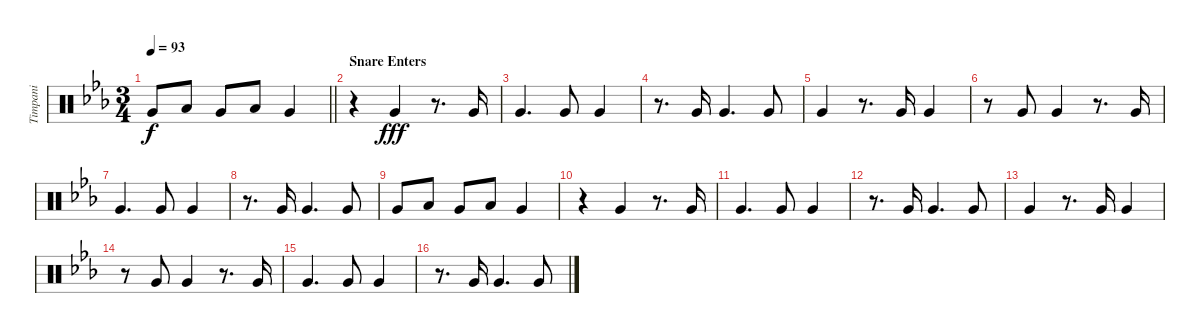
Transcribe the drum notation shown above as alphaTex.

\track ("Timpani" "Timpani") {instrument percussion}
\staff {score}
\articulation defaults
\ts (3 4)
\tempo 93
\clef neutral
\barLineRight lightlight
\ks cminor "Very Low Tom (hit)".8{dy f} "Low Floor Tom (hit)".8 "Very Low Tom (hit)".8 "Low Floor Tom (hit)".8 "Very Low Tom (hit)".4
|
\section ("" "Snare Enters")
r.4 "Very Low Tom (hit)".4{dy fff} r.8{d} "Very Low Tom (hit)".16 |
"Very Low Tom (hit)".4{d} "Very Low Tom (hit)".8 "Very Low Tom (hit)".4 |
r.8{d} "Very Low Tom (hit)".16 "Very Low Tom (hit)".4{d} "Very Low Tom (hit)".8 |
"Very Low Tom (hit)".4 r.8{d} "Very Low Tom (hit)".16 "Very Low Tom (hit)".4 |
r.8 "Very Low Tom (hit)".8 "Very Low Tom (hit)".4 r.8{d} "Very Low Tom (hit)".16 |
"Very Low Tom (hit)".4{d} "Very Low Tom (hit)".8 "Very Low Tom (hit)".4 |
r.8{d} "Very Low Tom (hit)".16 "Very Low Tom (hit)".4{d} "Very Low Tom (hit)".8 |
"Very Low Tom (hit)".8 "Low Floor Tom (hit)".8 "Very Low Tom (hit)".8 "Low Floor Tom (hit)".8 "Very Low Tom (hit)".4 |
r.4 "Very Low Tom (hit)".4 r.8{d} "Very Low Tom (hit)".16 |
"Very Low Tom (hit)".4{d} "Very Low Tom (hit)".8 "Very Low Tom (hit)".4 |
r.8{d} "Very Low Tom (hit)".16 "Very Low Tom (hit)".4{d} "Very Low Tom (hit)".8 |
"Very Low Tom (hit)".4 r.8{d} "Very Low Tom (hit)".16 "Very Low Tom (hit)".4 |
r.8 "Very Low Tom (hit)".8 "Very Low Tom (hit)".4 r.8{d} "Very Low Tom (hit)".16 |
"Very Low Tom (hit)".4{d} "Very Low Tom (hit)".8 "Very Low Tom (hit)".4 |
r.8{d} "Very Low Tom (hit)".16 "Very Low Tom (hit)".4{d} "Very Low Tom (hit)".8
